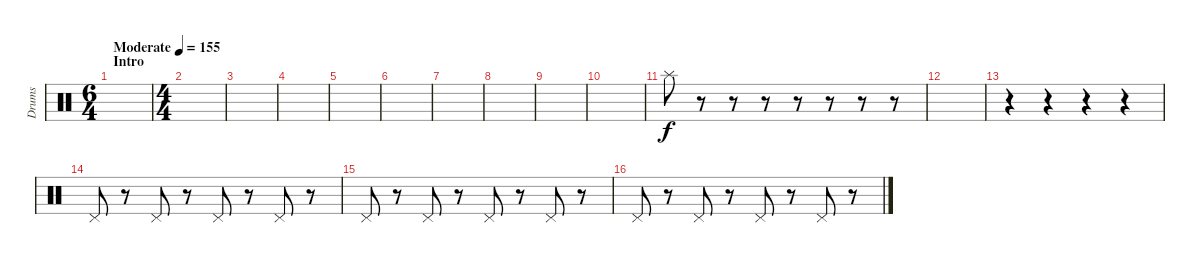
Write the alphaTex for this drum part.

\track ("Drums" "Drums") {instrument percussion}
\staff {score}
\articulation defaults
\ts (6 4)
\section ("" "Intro")
\tempo (155 "Moderate")
\clef neutral
\ks c
|
\ts (4 4)
|
|
|
|
|
|
|
|
|
"Splash (hit)".8 r.8 r.8 r.8 r.8 r.8 r.8 r.8 |
|
r.4 r.4 r.4 r.4 |
"Pedal Hi-Hat (hit)".8 r.8 "Pedal Hi-Hat (hit)".8 r.8 "Pedal Hi-Hat (hit)".8 r.8 "Pedal Hi-Hat (hit)".8 r.8 |
"Pedal Hi-Hat (hit)".8 r.8 "Pedal Hi-Hat (hit)".8 r.8 "Pedal Hi-Hat (hit)".8 r.8 "Pedal Hi-Hat (hit)".8 r.8 |
"Pedal Hi-Hat (hit)".8 r.8 "Pedal Hi-Hat (hit)".8 r.8 "Pedal Hi-Hat (hit)".8 r.8 "Pedal Hi-Hat (hit)".8 r.8
